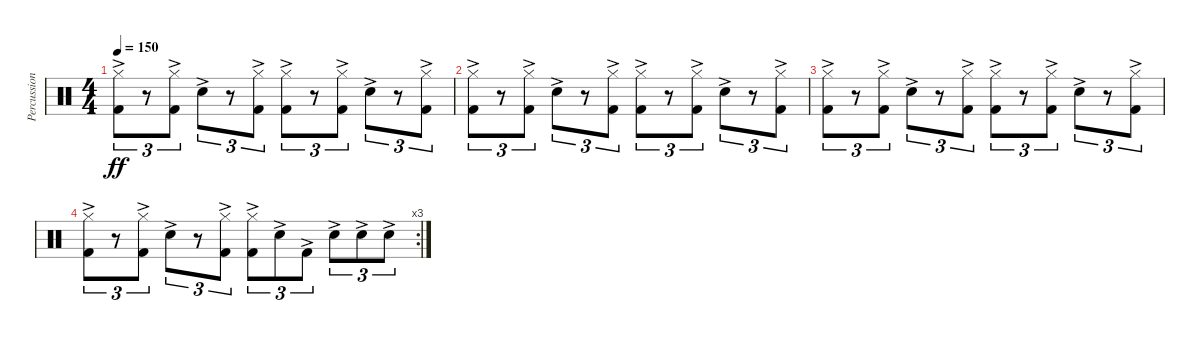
\track ("Percussion" "Percussion") {instrument percussion}
\staff {score}
\articulation defaults
\ts (4 4)
\tempo 150
\clef neutral
\ks c
("Hi-Hat (closed)"{ac} "Kick (hit) 2"{ac}).8{tu (3 2) dy ff} r.8{tu (3 2)} ("Hi-Hat (closed)"{ac} "Kick (hit) 2"{ac}).8{tu (3 2)} "Snare (hit) 2"{ac}.8{tu (3 2)} r.8{tu (3 2)} ("Hi-Hat (closed)"{ac} "Kick (hit) 2"{ac}).8{tu (3 2)} ("Hi-Hat (closed)"{ac} "Kick (hit) 2"{ac}).8{tu (3 2)} r.8{tu (3 2)} ("Hi-Hat (closed)"{ac} "Kick (hit) 2"{ac}).8{tu (3 2)} "Snare (hit) 2"{ac}.8{tu (3 2)} r.8{tu (3 2)} ("Hi-Hat (closed)"{ac} "Kick (hit) 2"{ac}).8{tu (3 2)} |
("Hi-Hat (closed)"{ac} "Kick (hit) 2"{ac}).8{tu (3 2)} r.8{tu (3 2)} ("Hi-Hat (closed)"{ac} "Kick (hit) 2"{ac}).8{tu (3 2)} "Snare (hit) 2"{ac}.8{tu (3 2)} r.8{tu (3 2)} ("Hi-Hat (closed)"{ac} "Kick (hit) 2"{ac}).8{tu (3 2)} ("Hi-Hat (closed)"{ac} "Kick (hit) 2"{ac}).8{tu (3 2)} r.8{tu (3 2)} ("Hi-Hat (closed)"{ac} "Kick (hit) 2"{ac}).8{tu (3 2)} "Snare (hit) 2"{ac}.8{tu (3 2)} r.8{tu (3 2)} ("Hi-Hat (closed)"{ac} "Kick (hit) 2"{ac}).8{tu (3 2)} |
("Hi-Hat (closed)"{ac} "Kick (hit) 2"{ac}).8{tu (3 2)} r.8{tu (3 2)} ("Hi-Hat (closed)"{ac} "Kick (hit) 2"{ac}).8{tu (3 2)} "Snare (hit) 2"{ac}.8{tu (3 2)} r.8{tu (3 2)} ("Hi-Hat (closed)"{ac} "Kick (hit) 2"{ac}).8{tu (3 2)} ("Hi-Hat (closed)"{ac} "Kick (hit) 2"{ac}).8{tu (3 2)} r.8{tu (3 2)} ("Hi-Hat (closed)"{ac} "Kick (hit) 2"{ac}).8{tu (3 2)} "Snare (hit) 2"{ac}.8{tu (3 2)} r.8{tu (3 2)} ("Hi-Hat (closed)"{ac} "Kick (hit) 2"{ac}).8{tu (3 2)} |
\rc 3
("Hi-Hat (closed)"{ac} "Kick (hit) 2"{ac}).8{tu (3 2)} r.8{tu (3 2)} ("Hi-Hat (closed)"{ac} "Kick (hit) 2"{ac}).8{tu (3 2)} "Snare (hit) 2"{ac}.8{tu (3 2)} r.8{tu (3 2)} ("Hi-Hat (closed)"{ac} "Kick (hit) 2"{ac}).8{tu (3 2)} ("Hi-Hat (closed)"{ac} "Kick (hit) 2"{ac}).8{tu (3 2)} "Snare (hit) 2"{ac}.8{tu (3 2)} "Kick (hit) 2"{ac}.8{tu (3 2)} "Snare (hit) 2"{ac}.8{tu (3 2)} "Snare (hit) 2"{ac}.8{tu (3 2)} "Snare (hit) 2"{ac}.8{tu (3 2)}
